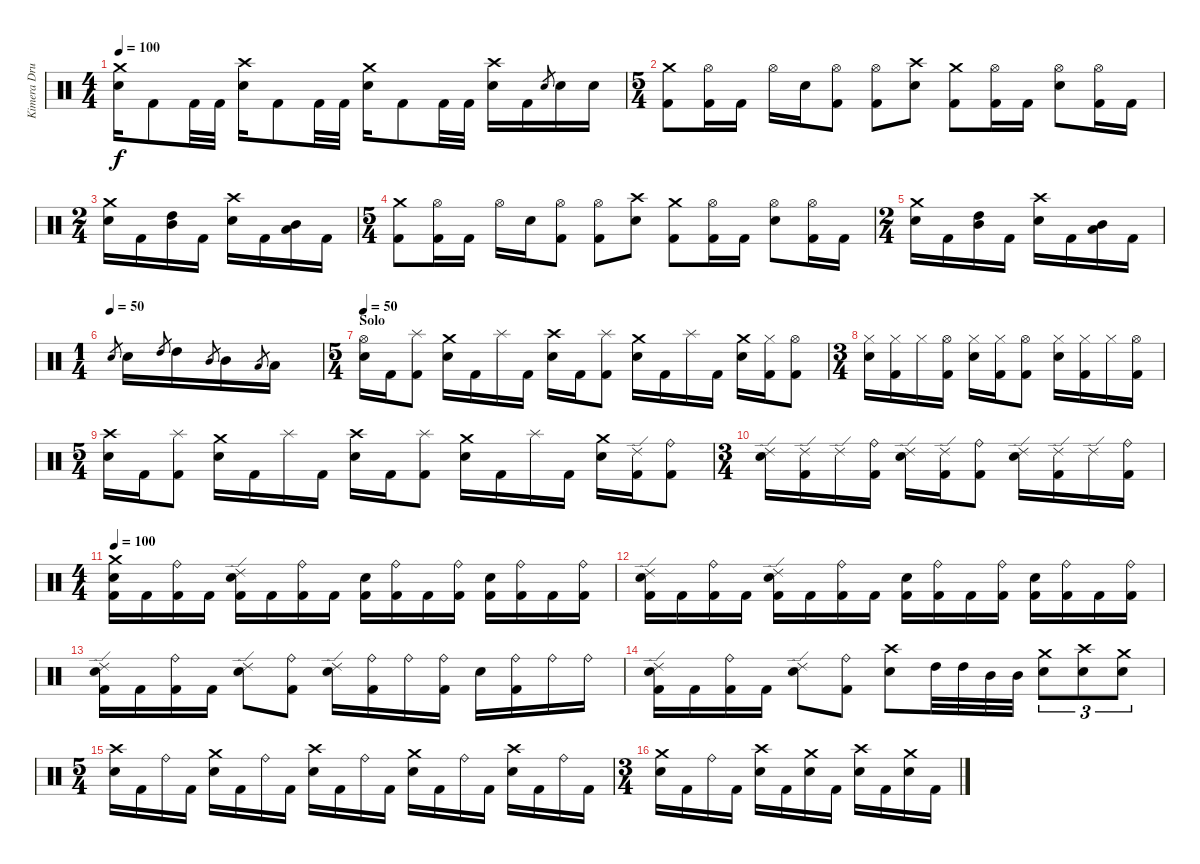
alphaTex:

\track ("Kimera Drummer" "Kimera Dru") {instrument percussion}
\staff {score}
\articulation defaults
\ts (4 4)
\tempo 100
\clef neutral
\ks c
("Crash medium (hit)" "Electric Snare (hit)").16{dy f} "Kick (hit) 2".8 "Kick (hit) 2".32 "Kick (hit) 2".32 ("Crash high (hit)" "Electric Snare (hit)").16 "Kick (hit) 2".8 "Kick (hit) 2".32 "Kick (hit) 2".32 ("Crash medium (hit)" "Electric Snare (hit)").16 "Kick (hit) 2".8 "Kick (hit) 2".32 "Kick (hit) 2".32 ("Crash high (hit)" "Electric Snare (hit)").16 "Kick (hit) 2".16 "Electric Snare (hit)".8{gr} "Electric Snare (hit)".16 "Electric Snare (hit)".16 |
\ts (5 4)
("Crash medium (hit)" "Kick (hit) 2").8 ("Hi-Hat (open)" "Kick (hit) 2").16 "Kick (hit) 2".16 "Hi-Hat (open)".16 "Electric Snare (hit)".16 ("Hi-Hat (open)" "Kick (hit) 2").8 ("Hi-Hat (open)" "Kick (hit) 2").8 ("Crash high (hit)" "Electric Snare (hit)").8 ("Crash medium (hit)" "Kick (hit) 2").8 ("Hi-Hat (open)" "Kick (hit) 2").16 "Kick (hit) 2".16 ("Hi-Hat (open)" "Electric Snare (hit)").8 ("Hi-Hat (open)" "Kick (hit) 2").16 "Kick (hit) 2".16 |
\ts (2 4)
("Crash medium (hit)" "Electric Snare (hit)").16 "Kick (hit) 2".16 ("High Tom (hit)" "Mid Tom (hit)").16 "Kick (hit) 2".16 ("Crash high (hit)" "Electric Snare (hit)").16 "Kick (hit) 2".16 ("Mid Tom (hit)" "Low Floor Tom (hit)").16 "Kick (hit) 2".16 |
\ts (5 4)
("Crash medium (hit)" "Kick (hit) 2").8 ("Hi-Hat (open)" "Kick (hit) 2").16 "Kick (hit) 2".16 "Hi-Hat (open)".16 "Electric Snare (hit)".16 ("Hi-Hat (open)" "Kick (hit) 2").8 ("Hi-Hat (open)" "Kick (hit) 2").8 ("Crash high (hit)" "Electric Snare (hit)").8 ("Crash medium (hit)" "Kick (hit) 2").8 ("Hi-Hat (open)" "Kick (hit) 2").16 "Kick (hit) 2".16 ("Hi-Hat (open)" "Electric Snare (hit)").8 ("Hi-Hat (open)" "Kick (hit) 2").16 "Kick (hit) 2".16 |
\ts (2 4)
("Crash medium (hit)" "Electric Snare (hit)").16 "Kick (hit) 2".16 ("High Tom (hit)" "Mid Tom (hit)").16 "Kick (hit) 2".16 ("Crash high (hit)" "Electric Snare (hit)").16 "Kick (hit) 2".16 ("Mid Tom (hit)" "Low Floor Tom (hit)").16 "Kick (hit) 2".16 |
\ts (1 4)
\tempo (50)
"Electric Snare (hit)".8{gr} "Electric Snare (hit)".16 "High Tom (hit)".8{gr} "High Tom (hit)".16 "Mid Tom (hit)".8{gr} "Mid Tom (hit)".16 "Low Floor Tom (hit)".8{gr} "Low Floor Tom (hit)".16 |
\ts (5 4)
\section ("" "Solo")
\tempo 50
("Hi-Hat (open)" "Electric Snare (hit)").16 "Kick (hit) 2".16 ("Splash (hit)" "Kick (hit) 2").8 ("Crash medium (hit)" "Electric Snare (hit)").16 "Kick (hit) 2".16 "Splash (hit)".16 "Kick (hit) 2".16 ("Crash high (hit)" "Electric Snare (hit)").16 "Kick (hit) 2".16 ("Splash (hit)" "Kick (hit) 2").8 ("Crash medium (hit)" "Electric Snare (hit)").16 "Kick (hit) 2".16 "Splash (hit)".16 "Kick (hit) 2".16 ("Crash medium (hit)" "Electric Snare (hit)").16 ("Hi-Hat (closed)" "Kick (hit) 2").16 ("Hi-Hat (open)" "Kick (hit) 2").8 |
\ts (3 4)
("Hi-Hat (closed)" "Electric Snare (hit)").16 ("Hi-Hat (closed)" "Kick (hit) 2").16 "Hi-Hat (closed)".16 ("Hi-Hat (open)" "Kick (hit) 2").16 ("Hi-Hat (closed)" "Electric Snare (hit)").16 ("Hi-Hat (closed)" "Kick (hit) 2").16 ("Hi-Hat (open)" "Kick (hit) 2").8 ("Hi-Hat (closed)" "Electric Snare (hit)").16 ("Hi-Hat (closed)" "Kick (hit) 2").16 "Hi-Hat (closed)".16 ("Hi-Hat (open)" "Kick (hit) 2").16 |
\ts (5 4)
("Crash high (hit)" "Electric Snare (hit)").16 "Kick (hit) 2".16 ("Splash (hit)" "Kick (hit) 2").8 ("Crash medium (hit)" "Electric Snare (hit)").16 "Kick (hit) 2".16 "Splash (hit)".16 "Kick (hit) 2".16 ("Crash high (hit)" "Electric Snare (hit)").16 "Kick (hit) 2".16 ("Splash (hit)" "Kick (hit) 2").8 ("Crash medium (hit)" "Electric Snare (hit)").16 "Kick (hit) 2".16 "Splash (hit)".16 "Kick (hit) 2".16 ("Crash medium (hit)" "Electric Snare (hit)").16 ("Ride (edge) 2" "Kick (hit) 2").16 ("Ride (bell)" "Kick (hit) 2").8 |
\ts (3 4)
("Ride (edge) 2" "Electric Snare (hit)").16 ("Ride (edge) 2" "Kick (hit) 2").16 "Ride (edge) 2".16 ("Ride (bell)" "Kick (hit) 2").16 ("Ride (edge) 2" "Electric Snare (hit)").16 ("Ride (edge) 2" "Kick (hit) 2").16 ("Ride (bell)" "Kick (hit) 2").8 ("Ride (edge) 2" "Electric Snare (hit)").16 ("Ride (edge) 2" "Kick (hit) 2").16 "Ride (edge) 2".16 ("Ride (bell)" "Kick (hit) 2").16 |
\ts (4 4)
\tempo 100
("Crash medium (hit)" "Electric Snare (hit)" "Kick (hit) 2").16 "Kick (hit) 2".16 ("Ride (bell)" "Kick (hit) 2").16 "Kick (hit) 2".16 ("Ride (edge) 2" "Electric Snare (hit)" "Kick (hit) 2").16 "Kick (hit) 2".16 ("Ride (bell)" "Kick (hit) 2").16 "Kick (hit) 2".16 ("Electric Snare (hit)" "Kick (hit) 2").16 ("Ride (bell)" "Kick (hit) 2").16 "Kick (hit) 2".16 ("Ride (bell)" "Kick (hit) 2").16 ("Electric Snare (hit)" "Kick (hit) 2").16 ("Ride (bell)" "Kick (hit) 2").16 "Kick (hit) 2".16 ("Ride (bell)" "Kick (hit) 2").16 |
("Ride (edge) 2" "Electric Snare (hit)" "Kick (hit) 2").16 "Kick (hit) 2".16 ("Ride (bell)" "Kick (hit) 2").16 "Kick (hit) 2".16 ("Ride (edge) 2" "Electric Snare (hit)" "Kick (hit) 2").16 "Kick (hit) 2".16 ("Ride (bell)" "Kick (hit) 2").16 "Kick (hit) 2".16 ("Electric Snare (hit)" "Kick (hit) 2").16 ("Ride (bell)" "Kick (hit) 2").16 "Kick (hit) 2".16 ("Ride (bell)" "Kick (hit) 2").16 ("Electric Snare (hit)" "Kick (hit) 2").16 ("Ride (bell)" "Kick (hit) 2").16 "Kick (hit) 2".16 ("Ride (bell)" "Kick (hit) 2").16 |
("Ride (edge) 2" "Electric Snare (hit)" "Kick (hit) 2").16 "Kick (hit) 2".16 ("Ride (bell)" "Kick (hit) 2").16 "Kick (hit) 2".16 ("Ride (edge) 2" "Electric Snare (hit)").8 ("Ride (bell)" "Kick (hit) 2").8 ("Ride (edge) 2" "Electric Snare (hit)").16 ("Ride (bell)" "Kick (hit) 2").16 "Ride (bell)".16 ("Ride (bell)" "Kick (hit) 2").16 "Electric Snare (hit)".16 ("Ride (bell)" "Kick (hit) 2").16 "Ride (bell)".16 "Ride (bell)".16 |
("Ride (edge) 2" "Electric Snare (hit)" "Kick (hit) 2").16 "Kick (hit) 2".16 ("Ride (bell)" "Kick (hit) 2").16 "Kick (hit) 2".16 ("Ride (edge) 2" "Electric Snare (hit)").8 ("Ride (bell)" "Kick (hit) 2").8 ("Crash high (hit)" "Electric Snare (hit)").8 "High Tom (hit)".32 "High Tom (hit)".32 "Mid Tom (hit)".32 "Mid Tom (hit)".32 ("Crash medium (hit)" "Electric Snare (hit)").8{tu (3 2)} ("Crash high (hit)" "Electric Snare (hit)").8{tu (3 2)} ("Crash medium (hit)" "Electric Snare (hit)").8{tu (3 2)} |
\ts (5 4)
("Crash high (hit)" "Electric Snare (hit)").16 "Kick (hit) 2".16 "Ride (bell)".16 "Kick (hit) 2".16 ("Crash medium (hit)" "Electric Snare (hit)").16 "Kick (hit) 2".16 "Ride (bell)".16 "Kick (hit) 2".16 ("Crash high (hit)" "Electric Snare (hit)").16 "Kick (hit) 2".16 "Ride (bell)".16 "Kick (hit) 2".16 ("Crash medium (hit)" "Electric Snare (hit)").16 "Kick (hit) 2".16 "Ride (bell)".16 "Kick (hit) 2".16 ("Crash high (hit)" "Electric Snare (hit)").16 "Kick (hit) 2".16 "Ride (bell)".16 "Kick (hit) 2".16 |
\ts (3 4)
("Crash medium (hit)" "Electric Snare (hit)").16 "Kick (hit) 2".16 "Ride (bell)".16 "Kick (hit) 2".16 ("Crash high (hit)" "Electric Snare (hit)").16 "Kick (hit) 2".16 ("Crash medium (hit)" "Electric Snare (hit)").16 "Kick (hit) 2".16 ("Crash high (hit)" "Electric Snare (hit)").16 "Kick (hit) 2".16 ("Crash medium (hit)" "Electric Snare (hit)").16 "Kick (hit) 2".16
